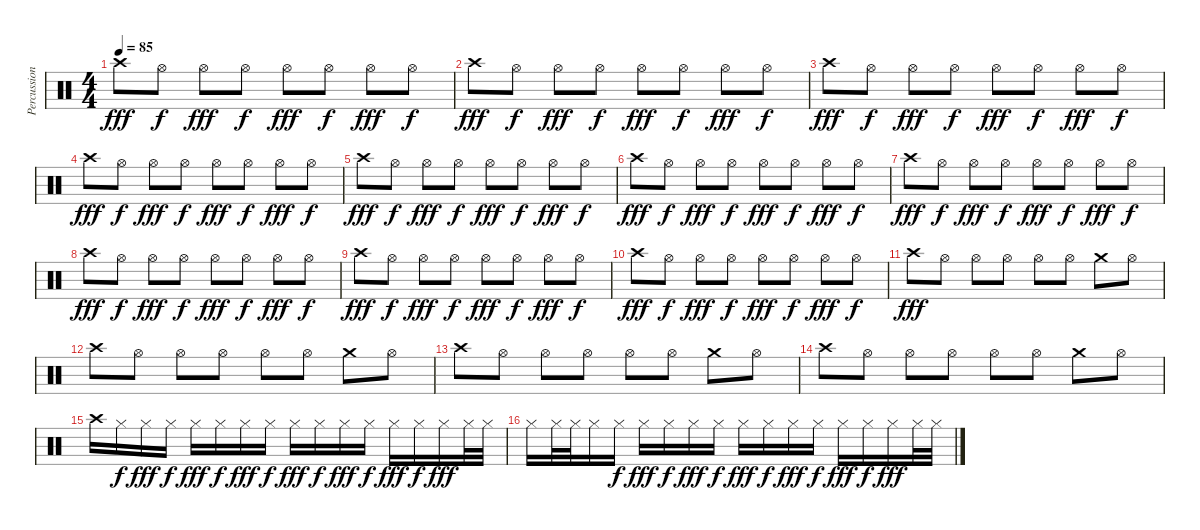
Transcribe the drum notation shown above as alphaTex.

\track ("Percussion" "Percussion") {instrument percussion}
\staff {score}
\articulation defaults
\ts (4 4)
\tempo 85
\clef neutral
\ks c "Crash high (hit)".8{dy fff} "Hi-Hat (open)".8{dy f} "Hi-Hat (open)".8{dy fff} "Hi-Hat (open)".8{dy f} "Hi-Hat (open)".8{dy fff} "Hi-Hat (open)".8{dy f} "Hi-Hat (open)".8{dy fff} "Hi-Hat (open)".8{dy f}
|
"Crash high (hit)".8{dy fff} "Hi-Hat (open)".8{dy f} "Hi-Hat (open)".8{dy fff} "Hi-Hat (open)".8{dy f} "Hi-Hat (open)".8{dy fff} "Hi-Hat (open)".8{dy f} "Hi-Hat (open)".8{dy fff} "Hi-Hat (open)".8{dy f} |
"Crash high (hit)".8{dy fff} "Hi-Hat (open)".8{dy f} "Hi-Hat (open)".8{dy fff} "Hi-Hat (open)".8{dy f} "Hi-Hat (open)".8{dy fff} "Hi-Hat (open)".8{dy f} "Hi-Hat (open)".8{dy fff} "Hi-Hat (open)".8{dy f} |
"Crash high (hit)".8{dy fff} "Hi-Hat (open)".8{dy f} "Hi-Hat (open)".8{dy fff} "Hi-Hat (open)".8{dy f} "Hi-Hat (open)".8{dy fff} "Hi-Hat (open)".8{dy f} "Hi-Hat (open)".8{dy fff} "Hi-Hat (open)".8{dy f} |
"Crash high (hit)".8{dy fff} "Hi-Hat (open)".8{dy f} "Hi-Hat (open)".8{dy fff} "Hi-Hat (open)".8{dy f} "Hi-Hat (open)".8{dy fff} "Hi-Hat (open)".8{dy f} "Hi-Hat (open)".8{dy fff} "Hi-Hat (open)".8{dy f} |
"Crash high (hit)".8{dy fff} "Hi-Hat (open)".8{dy f} "Hi-Hat (open)".8{dy fff} "Hi-Hat (open)".8{dy f} "Hi-Hat (open)".8{dy fff} "Hi-Hat (open)".8{dy f} "Hi-Hat (open)".8{dy fff} "Hi-Hat (open)".8{dy f} |
"Crash high (hit)".8{dy fff} "Hi-Hat (open)".8{dy f} "Hi-Hat (open)".8{dy fff} "Hi-Hat (open)".8{dy f} "Hi-Hat (open)".8{dy fff} "Hi-Hat (open)".8{dy f} "Hi-Hat (open)".8{dy fff} "Hi-Hat (open)".8{dy f} |
"Crash high (hit)".8{dy fff} "Hi-Hat (open)".8{dy f} "Hi-Hat (open)".8{dy fff} "Hi-Hat (open)".8{dy f} "Hi-Hat (open)".8{dy fff} "Hi-Hat (open)".8{dy f} "Hi-Hat (open)".8{dy fff} "Hi-Hat (open)".8{dy f} |
"Crash high (hit)".8{dy fff} "Hi-Hat (open)".8{dy f} "Hi-Hat (open)".8{dy fff} "Hi-Hat (open)".8{dy f} "Hi-Hat (open)".8{dy fff} "Hi-Hat (open)".8{dy f} "Hi-Hat (open)".8{dy fff} "Hi-Hat (open)".8{dy f} |
"Crash high (hit)".8{dy fff} "Hi-Hat (open)".8{dy f} "Hi-Hat (open)".8{dy fff} "Hi-Hat (open)".8{dy f} "Hi-Hat (open)".8{dy fff} "Hi-Hat (open)".8{dy f} "Hi-Hat (open)".8{dy fff} "Hi-Hat (open)".8{dy f} |
"Crash high (hit)".8{dy fff} "Hi-Hat (open)".8 "Hi-Hat (open)".8 "Hi-Hat (open)".8 "Hi-Hat (open)".8 "Hi-Hat (open)".8 "Crash medium (hit)".8 "Hi-Hat (open)".8 |
"Crash high (hit)".8 "Hi-Hat (open)".8 "Hi-Hat (open)".8 "Hi-Hat (open)".8 "Hi-Hat (open)".8 "Hi-Hat (open)".8 "Crash medium (hit)".8 "Hi-Hat (open)".8 |
"Crash high (hit)".8 "Hi-Hat (open)".8 "Hi-Hat (open)".8 "Hi-Hat (open)".8 "Hi-Hat (open)".8 "Hi-Hat (open)".8 "Crash medium (hit)".8 "Hi-Hat (open)".8 |
"Crash high (hit)".8 "Hi-Hat (open)".8 "Hi-Hat (open)".8 "Hi-Hat (open)".8 "Hi-Hat (open)".8 "Hi-Hat (open)".8 "Crash medium (hit)".8 "Hi-Hat (open)".8 |
"Crash high (hit)".16 "Hi-Hat (closed)".16{dy f} "Hi-Hat (closed)".16{dy fff} "Hi-Hat (closed)".16{dy f} "Hi-Hat (closed)".16{dy fff} "Hi-Hat (closed)".16{dy f} "Hi-Hat (closed)".16{dy fff} "Hi-Hat (closed)".16{dy f} "Hi-Hat (closed)".16{dy fff} "Hi-Hat (closed)".16{dy f} "Hi-Hat (closed)".16{dy fff} "Hi-Hat (closed)".16{dy f} "Hi-Hat (closed)".16{dy fff} "Hi-Hat (closed)".16{dy f} "Hi-Hat (closed)".16{dy fff} "Hi-Hat (closed)".32 "Hi-Hat (closed)".32 |
"Hi-Hat (closed)".16 "Hi-Hat (closed)".32 "Hi-Hat (closed)".32 "Hi-Hat (closed)".16 "Hi-Hat (closed)".16{dy f} "Hi-Hat (closed)".16{dy fff} "Hi-Hat (closed)".16{dy f} "Hi-Hat (closed)".16{dy fff} "Hi-Hat (closed)".16{dy f} "Hi-Hat (closed)".16{dy fff} "Hi-Hat (closed)".16{dy f} "Hi-Hat (closed)".16{dy fff} "Hi-Hat (closed)".16{dy f} "Hi-Hat (closed)".16{dy fff} "Hi-Hat (closed)".16{dy f} "Hi-Hat (closed)".16{dy fff} "Hi-Hat (closed)".32 "Hi-Hat (closed)".32
